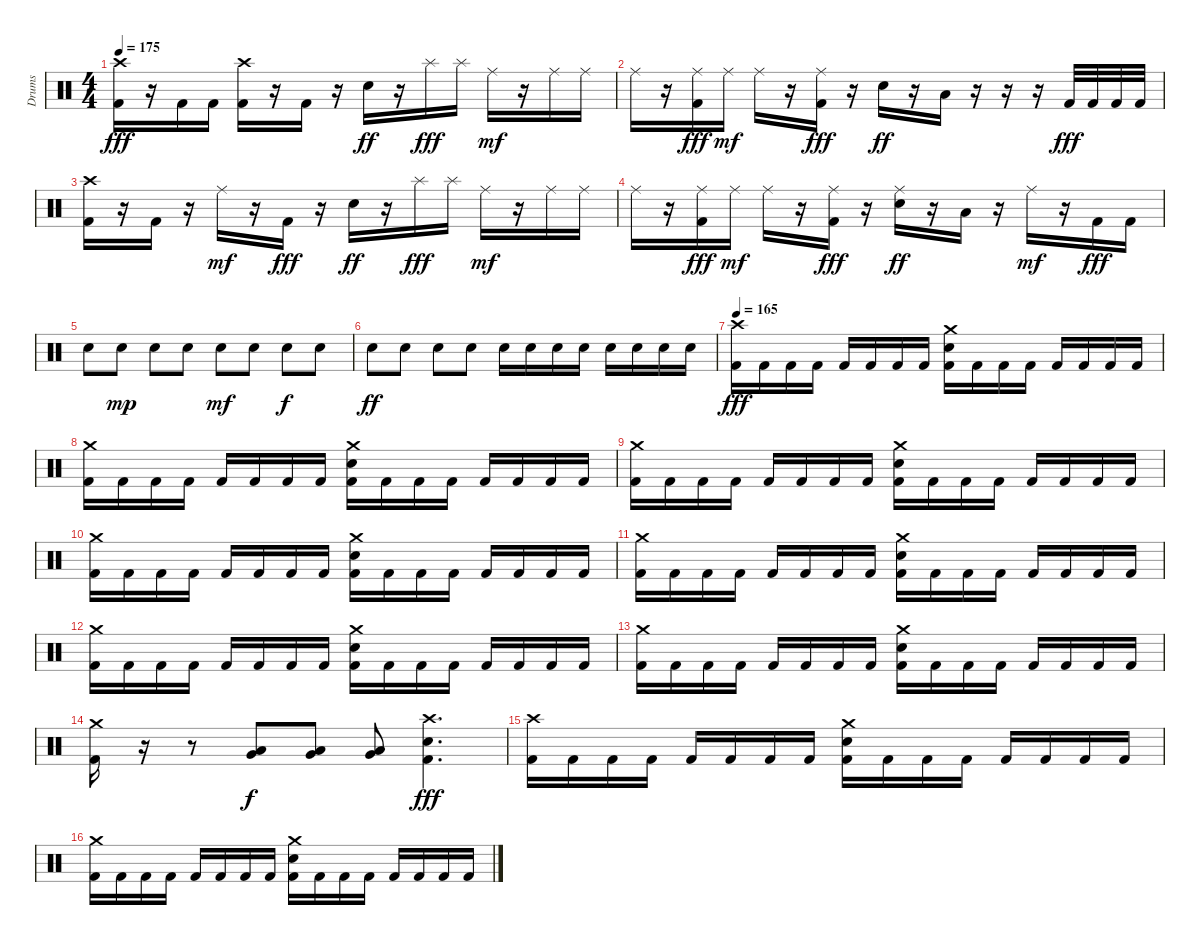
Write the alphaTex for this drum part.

\track ("Drums" "Drums") {instrument percussion}
\staff {score}
\articulation defaults
\ts (4 4)
\tempo 175
\clef neutral
\ks c
("Crash high (hit)" "Kick (hit) 2").16{dy fff} r.16 "Kick (hit) 2".16 "Kick (hit) 2".16 ("Crash high (hit)" "Kick (hit) 2").16 r.16 "Kick (hit) 2".16 r.16 "Snare (hit) 2".16{dy ff} r.16 "Splash (hit)".16{dy fff} "Splash (hit)".16 "Ride (middle)".16{dy mf} r.16 "Ride (middle)".16 "Ride (middle)".16 |
"Ride (middle)".16 r.16 ("Ride (middle)" "Kick (hit) 2").16{dy fff} "Ride (middle)".16{dy mf} "Ride (middle)".16 r.16 ("Ride (middle)" "Kick (hit) 2").16{dy fff} r.16 "Snare (hit) 2".16{dy ff} r.16 "Low Tom (hit)".16 r.16 r.16 r.16 "Kick (hit) 2".32{dy fff} "Kick (hit) 2".32 "Kick (hit) 2".32 "Kick (hit) 2".32 |
("Crash high (hit)" "Kick (hit) 2").16 r.16 "Kick (hit) 2".16 r.16 "Ride (middle)".16{dy mf} r.16 "Kick (hit) 2".16{dy fff} r.16 "Snare (hit) 2".16{dy ff} r.16 "Splash (hit)".16{dy fff} "Splash (hit)".16 "Ride (middle)".16{dy mf} r.16 "Ride (middle)".16 "Ride (middle)".16 |
"Ride (middle)".16 r.16 ("Ride (middle)" "Kick (hit) 2").16{dy fff} "Ride (middle)".16{dy mf} "Ride (middle)".16 r.16 ("Ride (middle)" "Kick (hit) 2").16{dy fff} r.16 ("Ride (middle)" "Snare (hit) 2").16{dy ff} r.16 "Low Tom (hit)".16 r.16 "Ride (middle)".16{dy mf} r.16 "Kick (hit) 2".16{dy fff} "Kick (hit) 2".16 |
"Snare (hit) 2".8 "Snare (hit) 2".8{dy mp} "Snare (hit) 2".8 "Snare (hit) 2".8 "Snare (hit) 2".8{dy mf} "Snare (hit) 2".8 "Snare (hit) 2".8{dy f} "Snare (hit) 2".8 |
"Snare (hit) 2".8{dy ff} "Snare (hit) 2".8 "Snare (hit) 2".8 "Snare (hit) 2".8 "Snare (hit) 2".16 "Snare (hit) 2".16 "Snare (hit) 2".16 "Snare (hit) 2".16 "Snare (hit) 2".16 "Snare (hit) 2".16 "Snare (hit) 2".16 "Snare (hit) 2".16 |
\tempo 165
("Crash high (hit)" "Kick (hit) 2").16{dy fff} "Kick (hit) 2".16 "Kick (hit) 2".16 "Kick (hit) 2".16 "Kick (hit) 2".16 "Kick (hit) 2".16 "Kick (hit) 2".16 "Kick (hit) 2".16 ("Crash medium (hit)" "Snare (hit) 2" "Kick (hit) 2").16 "Kick (hit) 2".16 "Kick (hit) 2".16 "Kick (hit) 2".16 "Kick (hit) 2".16 "Kick (hit) 2".16 "Kick (hit) 2".16 "Kick (hit) 2".16 |
("Crash medium (hit)" "Kick (hit) 2").16 "Kick (hit) 2".16 "Kick (hit) 2".16 "Kick (hit) 2".16 "Kick (hit) 2".16 "Kick (hit) 2".16 "Kick (hit) 2".16 "Kick (hit) 2".16 ("Crash medium (hit)" "Snare (hit) 2" "Kick (hit) 2").16 "Kick (hit) 2".16 "Kick (hit) 2".16 "Kick (hit) 2".16 "Kick (hit) 2".16 "Kick (hit) 2".16 "Kick (hit) 2".16 "Kick (hit) 2".16 |
("Crash medium (hit)" "Kick (hit) 2").16 "Kick (hit) 2".16 "Kick (hit) 2".16 "Kick (hit) 2".16 "Kick (hit) 2".16 "Kick (hit) 2".16 "Kick (hit) 2".16 "Kick (hit) 2".16 ("Crash medium (hit)" "Snare (hit) 2" "Kick (hit) 2").16 "Kick (hit) 2".16 "Kick (hit) 2".16 "Kick (hit) 2".16 "Kick (hit) 2".16 "Kick (hit) 2".16 "Kick (hit) 2".16 "Kick (hit) 2".16 |
("Crash medium (hit)" "Kick (hit) 2").16 "Kick (hit) 2".16 "Kick (hit) 2".16 "Kick (hit) 2".16 "Kick (hit) 2".16 "Kick (hit) 2".16 "Kick (hit) 2".16 "Kick (hit) 2".16 ("Crash medium (hit)" "Snare (hit) 2" "Kick (hit) 2").16 "Kick (hit) 2".16 "Kick (hit) 2".16 "Kick (hit) 2".16 "Kick (hit) 2".16 "Kick (hit) 2".16 "Kick (hit) 2".16 "Kick (hit) 2".16 |
("Crash medium (hit)" "Kick (hit) 2").16 "Kick (hit) 2".16 "Kick (hit) 2".16 "Kick (hit) 2".16 "Kick (hit) 2".16 "Kick (hit) 2".16 "Kick (hit) 2".16 "Kick (hit) 2".16 ("Crash medium (hit)" "Snare (hit) 2" "Kick (hit) 2").16 "Kick (hit) 2".16 "Kick (hit) 2".16 "Kick (hit) 2".16 "Kick (hit) 2".16 "Kick (hit) 2".16 "Kick (hit) 2".16 "Kick (hit) 2".16 |
("Crash medium (hit)" "Kick (hit) 2").16 "Kick (hit) 2".16 "Kick (hit) 2".16 "Kick (hit) 2".16 "Kick (hit) 2".16 "Kick (hit) 2".16 "Kick (hit) 2".16 "Kick (hit) 2".16 ("Crash medium (hit)" "Snare (hit) 2" "Kick (hit) 2").16 "Kick (hit) 2".16 "Kick (hit) 2".16 "Kick (hit) 2".16 "Kick (hit) 2".16 "Kick (hit) 2".16 "Kick (hit) 2".16 "Kick (hit) 2".16 |
("Crash medium (hit)" "Kick (hit) 2").16 "Kick (hit) 2".16 "Kick (hit) 2".16 "Kick (hit) 2".16 "Kick (hit) 2".16 "Kick (hit) 2".16 "Kick (hit) 2".16 "Kick (hit) 2".16 ("Crash medium (hit)" "Snare (hit) 2" "Kick (hit) 2").16 "Kick (hit) 2".16 "Kick (hit) 2".16 "Kick (hit) 2".16 "Kick (hit) 2".16 "Kick (hit) 2".16 "Kick (hit) 2".16 "Kick (hit) 2".16 |
("Crash medium (hit)" "Kick (hit) 2").16 r.16 r.8 ("Very Low Tom (hit)" "Low Floor Tom (hit)").8{dy f} ("Very Low Tom (hit)" "Low Floor Tom (hit)").8 ("Very Low Tom (hit)" "Low Floor Tom (hit)").8 ("Crash high (hit)" "Snare (hit) 2" "Kick (hit) 2").4{d dy fff} |
("Crash high (hit)" "Kick (hit) 2").16 "Kick (hit) 2".16 "Kick (hit) 2".16 "Kick (hit) 2".16 "Kick (hit) 2".16 "Kick (hit) 2".16 "Kick (hit) 2".16 "Kick (hit) 2".16 ("Crash medium (hit)" "Snare (hit) 2" "Kick (hit) 2").16 "Kick (hit) 2".16 "Kick (hit) 2".16 "Kick (hit) 2".16 "Kick (hit) 2".16 "Kick (hit) 2".16 "Kick (hit) 2".16 "Kick (hit) 2".16 |
("Crash medium (hit)" "Kick (hit) 2").16 "Kick (hit) 2".16 "Kick (hit) 2".16 "Kick (hit) 2".16 "Kick (hit) 2".16 "Kick (hit) 2".16 "Kick (hit) 2".16 "Kick (hit) 2".16 ("Crash medium (hit)" "Snare (hit) 2" "Kick (hit) 2").16 "Kick (hit) 2".16 "Kick (hit) 2".16 "Kick (hit) 2".16 "Kick (hit) 2".16 "Kick (hit) 2".16 "Kick (hit) 2".16 "Kick (hit) 2".16
